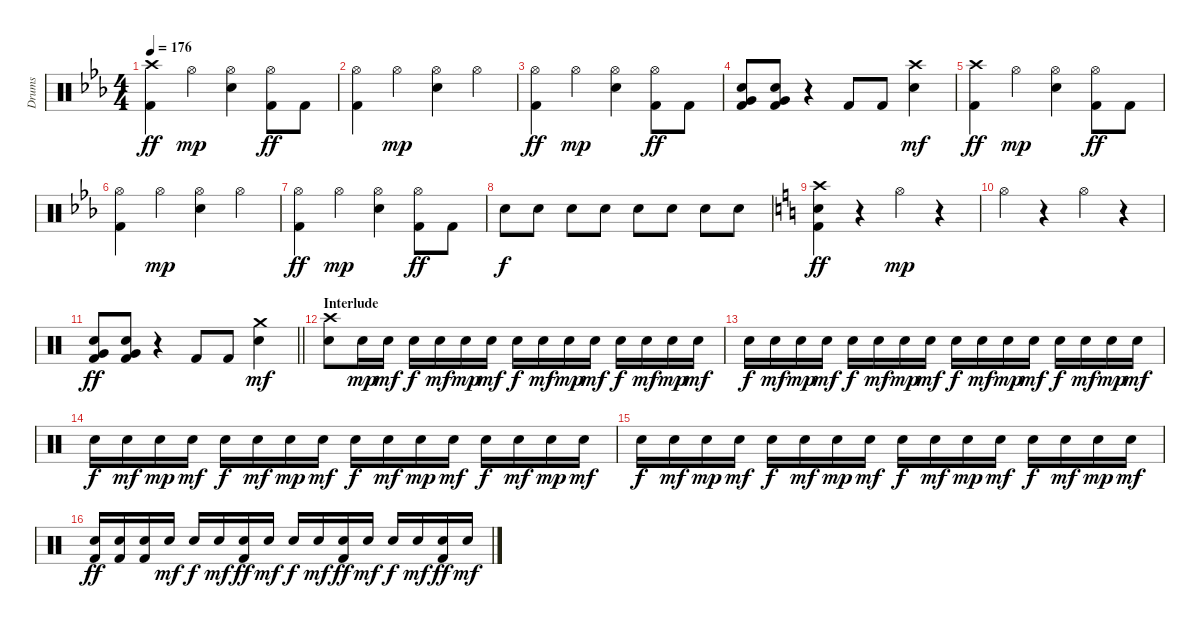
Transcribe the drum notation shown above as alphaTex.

\track ("Drums" "Drums") {instrument percussion}
\staff {score}
\articulation defaults
\ts (4 4)
\tempo 176
\clef neutral
\ks eb
("Crash high (hit)" "Kick (hit) 2").4{dy ff} "Hi-Hat (open)".4{dy mp} ("Hi-Hat (open)" "Electric Snare (hit)").4 ("Hi-Hat (open)" "Kick (hit) 2").8{dy ff} "Kick (hit) 2".8 |
("Hi-Hat (open)" "Kick (hit) 2").4 "Hi-Hat (open)".4{dy mp} ("Hi-Hat (open)" "Electric Snare (hit)").4 "Hi-Hat (open)".4 |
("Hi-Hat (open)" "Kick (hit) 2").4{dy ff} "Hi-Hat (open)".4{dy mp} ("Hi-Hat (open)" "Electric Snare (hit)").4 ("Hi-Hat (open)" "Kick (hit) 2").8{dy ff} "Kick (hit) 2".8 |
("Very Low Tom (hit)" "Electric Snare (hit)" "Kick (hit) 2").8 ("Very Low Tom (hit)" "Electric Snare (hit)" "Kick (hit) 2").8 r.4 "Kick (hit) 2".8 "Kick (hit) 2".8 ("Crash high (hit)" "Electric Snare (hit)").4{dy mf} |
("Crash high (hit)" "Kick (hit) 2").4{dy ff} "Hi-Hat (open)".4{dy mp} ("Hi-Hat (open)" "Electric Snare (hit)").4 ("Hi-Hat (open)" "Kick (hit) 2").8{dy ff} "Kick (hit) 2".8 |
("Hi-Hat (open)" "Kick (hit) 2").4 "Hi-Hat (open)".4{dy mp} ("Hi-Hat (open)" "Electric Snare (hit)").4 "Hi-Hat (open)".4 |
("Hi-Hat (open)" "Kick (hit) 2").4{dy ff} "Hi-Hat (open)".4{dy mp} ("Hi-Hat (open)" "Electric Snare (hit)").4 ("Hi-Hat (open)" "Kick (hit) 2").8{dy ff} "Kick (hit) 2".8 |
"Electric Snare (hit)".8{dy f} "Electric Snare (hit)".8 "Electric Snare (hit)".8 "Electric Snare (hit)".8 "Electric Snare (hit)".8 "Electric Snare (hit)".8 "Electric Snare (hit)".8 "Electric Snare (hit)".8 |
\ks c
("Crash high (hit)" "Electric Snare (hit)" "Kick (hit) 2").4{dy ff} r.4 "Hi-Hat (open)".4{dy mp} r.4 |
"Hi-Hat (open)".4 r.4 "Hi-Hat (open)".4 r.4 |
\barLineRight lightlight
("Very Low Tom (hit)" "Electric Snare (hit)" "Kick (hit) 2").8{dy ff} ("Very Low Tom (hit)" "Electric Snare (hit)" "Kick (hit) 2").8 r.4 "Kick (hit) 2".8 "Kick (hit) 2".8 ("Crash medium (hit)" "Electric Snare (hit)").4{dy mf} |
\section ("" "Interlude")
("Crash high (hit)" "Electric Snare (hit)").8 "Electric Snare (hit)".16{dy mp} "Electric Snare (hit)".16{dy mf} "Electric Snare (hit)".16{dy f} "Electric Snare (hit)".16{dy mf} "Electric Snare (hit)".16{dy mp} "Electric Snare (hit)".16{dy mf} "Electric Snare (hit)".16{dy f} "Electric Snare (hit)".16{dy mf} "Electric Snare (hit)".16{dy mp} "Electric Snare (hit)".16{dy mf} "Electric Snare (hit)".16{dy f} "Electric Snare (hit)".16{dy mf} "Electric Snare (hit)".16{dy mp} "Electric Snare (hit)".16{dy mf} |
"Electric Snare (hit)".16{dy f} "Electric Snare (hit)".16{dy mf} "Electric Snare (hit)".16{dy mp} "Electric Snare (hit)".16{dy mf} "Electric Snare (hit)".16{dy f} "Electric Snare (hit)".16{dy mf} "Electric Snare (hit)".16{dy mp} "Electric Snare (hit)".16{dy mf} "Electric Snare (hit)".16{dy f} "Electric Snare (hit)".16{dy mf} "Electric Snare (hit)".16{dy mp} "Electric Snare (hit)".16{dy mf} "Electric Snare (hit)".16{dy f} "Electric Snare (hit)".16{dy mf} "Electric Snare (hit)".16{dy mp} "Electric Snare (hit)".16{dy mf} |
"Electric Snare (hit)".16{dy f} "Electric Snare (hit)".16{dy mf} "Electric Snare (hit)".16{dy mp} "Electric Snare (hit)".16{dy mf} "Electric Snare (hit)".16{dy f} "Electric Snare (hit)".16{dy mf} "Electric Snare (hit)".16{dy mp} "Electric Snare (hit)".16{dy mf} "Electric Snare (hit)".16{dy f} "Electric Snare (hit)".16{dy mf} "Electric Snare (hit)".16{dy mp} "Electric Snare (hit)".16{dy mf} "Electric Snare (hit)".16{dy f} "Electric Snare (hit)".16{dy mf} "Electric Snare (hit)".16{dy mp} "Electric Snare (hit)".16{dy mf} |
"Electric Snare (hit)".16{dy f} "Electric Snare (hit)".16{dy mf} "Electric Snare (hit)".16{dy mp} "Electric Snare (hit)".16{dy mf} "Electric Snare (hit)".16{dy f} "Electric Snare (hit)".16{dy mf} "Electric Snare (hit)".16{dy mp} "Electric Snare (hit)".16{dy mf} "Electric Snare (hit)".16{dy f} "Electric Snare (hit)".16{dy mf} "Electric Snare (hit)".16{dy mp} "Electric Snare (hit)".16{dy mf} "Electric Snare (hit)".16{dy f} "Electric Snare (hit)".16{dy mf} "Electric Snare (hit)".16{dy mp} "Electric Snare (hit)".16{dy mf} |
("Electric Snare (hit)" "Kick (hit) 2").16{dy ff} ("Electric Snare (hit)" "Kick (hit) 2").16 ("Electric Snare (hit)" "Kick (hit) 2").16 "Electric Snare (hit)".16{dy mf} "Electric Snare (hit)".16{dy f} "Electric Snare (hit)".16{dy mf} ("Electric Snare (hit)" "Kick (hit) 2").16{dy ff} "Electric Snare (hit)".16{dy mf} "Electric Snare (hit)".16{dy f} "Electric Snare (hit)".16{dy mf} ("Electric Snare (hit)" "Kick (hit) 2").16{dy ff} "Electric Snare (hit)".16{dy mf} "Electric Snare (hit)".16{dy f} "Electric Snare (hit)".16{dy mf} ("Electric Snare (hit)" "Kick (hit) 2").16{dy ff} "Electric Snare (hit)".16{dy mf}
